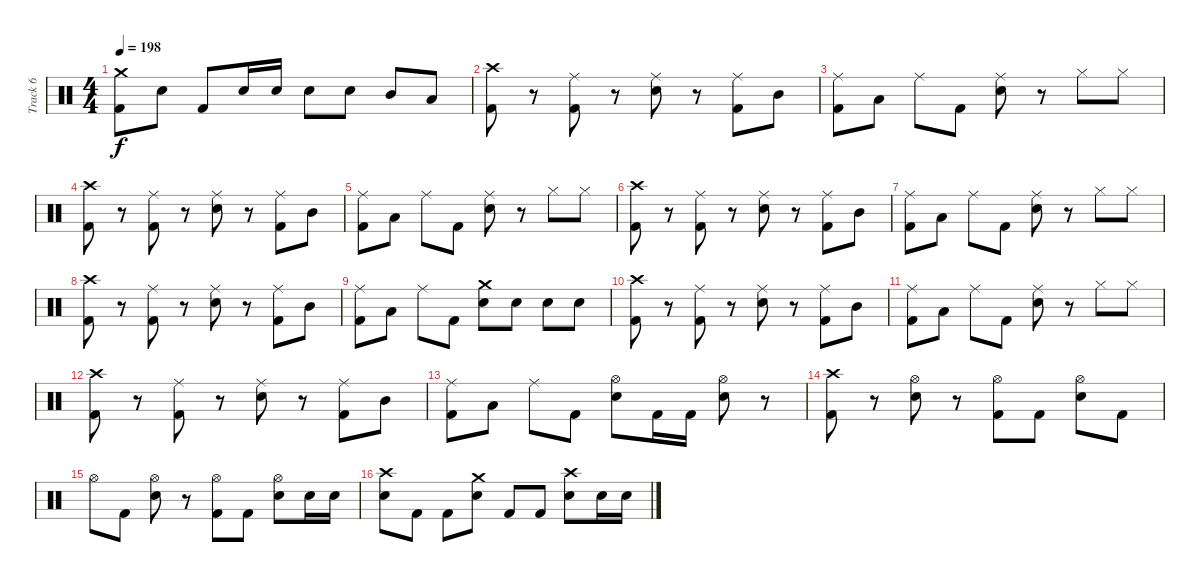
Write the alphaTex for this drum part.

\track ("Track 6" "Track 6") {instrument percussion}
\staff {score}
\articulation defaults
\ts (4 4)
\tempo 198
\clef neutral
\ks c
("Crash medium (hit)" "Kick (hit) 2").8{dy f} "Electric Snare (hit)".8 "Kick (hit) 2".8 "Electric Snare (hit)".16 "Electric Snare (hit)".16 "Electric Snare (hit)".8 "Electric Snare (hit)".8 "Mid Tom (hit)".8 "Low Tom (hit)".8 |
("Crash high (hit)" "Kick (hit) 2").8 r.8 ("Ride (middle)" "Kick (hit) 2").8 r.8 ("Ride (middle)" "Electric Snare (hit)").8 r.8 ("Ride (middle)" "Kick (hit) 2").8 "Mid Tom (hit)".8 |
("Ride (middle)" "Kick (hit) 2").8 "Low Tom (hit)".8 "Ride (middle)".8 "Kick (hit) 2".8 ("Ride (middle)" "Electric Snare (hit)").8 r.8 "Hi-Hat (closed)".8 "Hi-Hat (closed)".8 |
("Crash high (hit)" "Kick (hit) 2").8 r.8 ("Ride (middle)" "Kick (hit) 2").8 r.8 ("Ride (middle)" "Electric Snare (hit)").8 r.8 ("Ride (middle)" "Kick (hit) 2").8 "Mid Tom (hit)".8 |
("Ride (middle)" "Kick (hit) 2").8 "Low Tom (hit)".8 "Ride (middle)".8 "Kick (hit) 2".8 ("Ride (middle)" "Electric Snare (hit)").8 r.8 "Hi-Hat (closed)".8 "Hi-Hat (closed)".8 |
("Crash high (hit)" "Kick (hit) 2").8 r.8 ("Ride (middle)" "Kick (hit) 2").8 r.8 ("Ride (middle)" "Electric Snare (hit)").8 r.8 ("Ride (middle)" "Kick (hit) 2").8 "Mid Tom (hit)".8 |
("Ride (middle)" "Kick (hit) 2").8 "Low Tom (hit)".8 "Ride (middle)".8 "Kick (hit) 2".8 ("Ride (middle)" "Electric Snare (hit)").8 r.8 "Hi-Hat (closed)".8 "Hi-Hat (closed)".8 |
("Crash high (hit)" "Kick (hit) 2").8 r.8 ("Ride (middle)" "Kick (hit) 2").8 r.8 ("Ride (middle)" "Electric Snare (hit)").8 r.8 ("Ride (middle)" "Kick (hit) 2").8 "Mid Tom (hit)".8 |
("Ride (middle)" "Kick (hit) 2").8 "Low Tom (hit)".8 "Ride (middle)".8 "Kick (hit) 2".8 ("Crash medium (hit)" "Electric Snare (hit)").8 "Electric Snare (hit)".8 "Electric Snare (hit)".8 "Electric Snare (hit)".8 |
("Crash high (hit)" "Kick (hit) 2").8 r.8 ("Ride (middle)" "Kick (hit) 2").8 r.8 ("Ride (middle)" "Electric Snare (hit)").8 r.8 ("Ride (middle)" "Kick (hit) 2").8 "Mid Tom (hit)".8 |
("Ride (middle)" "Kick (hit) 2").8 "Low Tom (hit)".8 "Ride (middle)".8 "Kick (hit) 2".8 ("Ride (middle)" "Electric Snare (hit)").8 r.8 "Hi-Hat (closed)".8 "Hi-Hat (closed)".8 |
("Crash high (hit)" "Kick (hit) 2").8 r.8 ("Ride (middle)" "Kick (hit) 2").8 r.8 ("Ride (middle)" "Electric Snare (hit)").8 r.8 ("Ride (middle)" "Kick (hit) 2").8 "Mid Tom (hit)".8 |
("Ride (middle)" "Kick (hit) 2").8 "Low Tom (hit)".8 "Ride (middle)".8 "Kick (hit) 2".8 ("Hi-Hat (open)" "Electric Snare (hit)").8 "Kick (hit) 2".16 "Kick (hit) 2".16 ("Hi-Hat (open)" "Electric Snare (hit)").8 r.8 |
("Crash high (hit)" "Kick (hit) 2").8 r.8 ("Hi-Hat (open)" "Electric Snare (hit)").8 r.8 ("Hi-Hat (open)" "Kick (hit) 2").8 "Kick (hit) 2".8 ("Hi-Hat (open)" "Electric Snare (hit)").8 "Kick (hit) 2".8 |
"Hi-Hat (open)".8 "Kick (hit) 2".8 ("Hi-Hat (open)" "Electric Snare (hit)").8 r.8 ("Hi-Hat (open)" "Kick (hit) 2").8 "Kick (hit) 2".8 ("Hi-Hat (open)" "Electric Snare (hit)").8 "Electric Snare (hit)".16 "Electric Snare (hit)".16 |
("Crash high (hit)" "Electric Snare (hit)").8 "Kick (hit) 2".8 "Kick (hit) 2".8 ("Crash medium (hit)" "Electric Snare (hit)").8 "Kick (hit) 2".8 "Kick (hit) 2".8 ("Crash high (hit)" "Electric Snare (hit)").8 "Electric Snare (hit)".16 "Electric Snare (hit)".16
